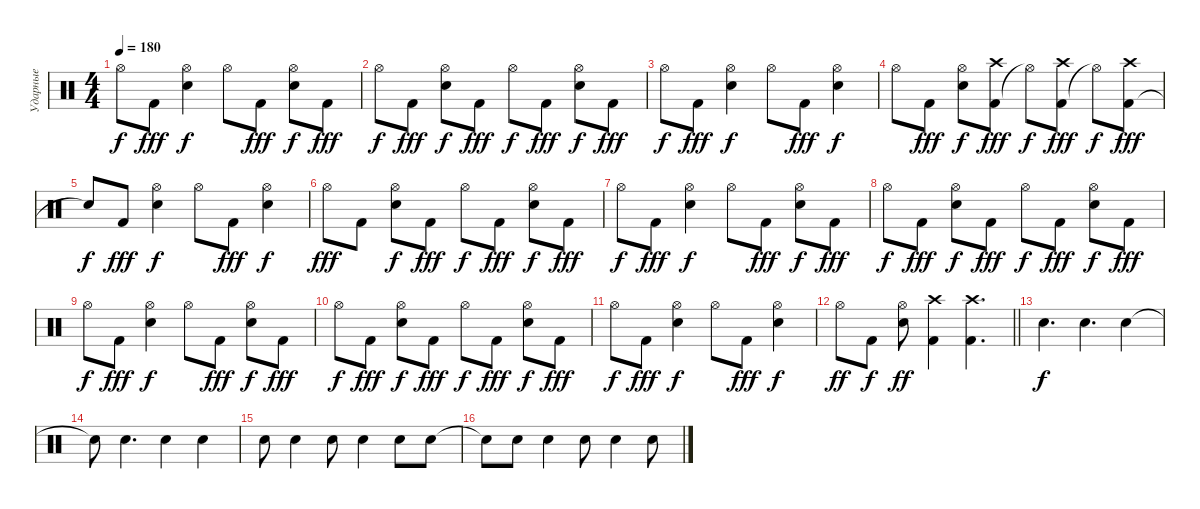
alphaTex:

\track ("Ударные" "Ударные") {instrument percussion}
\staff
\articulation defaults
\ts (4 4)
\tempo 180
\clef neutral
\ks c "Hi-Hat (open)".8{dy f} "Kick (hit) 2".8{dy fff}
("Snare (hit) 2" "Hi-Hat (open)").4{dy f} "Hi-Hat (open)".8 "Kick (hit) 2".8{dy fff} ("Snare (hit) 2" "Hi-Hat (open)").8{dy f} "Kick (hit) 2".8{dy fff} |
"Hi-Hat (open)".8{dy f} "Kick (hit) 2".8{dy fff} ("Snare (hit) 2" "Hi-Hat (open)").8{dy f} "Kick (hit) 2".8{dy fff} "Hi-Hat (open)".8{dy f} "Kick (hit) 2".8{dy fff} ("Snare (hit) 2" "Hi-Hat (open)").8{dy f} "Kick (hit) 2".8{dy fff} |
"Hi-Hat (open)".8{dy f} "Kick (hit) 2".8{dy fff} ("Snare (hit) 2" "Hi-Hat (open)").4{dy f} "Hi-Hat (open)".8 "Kick (hit) 2".8{dy fff} ("Snare (hit) 2" "Hi-Hat (open)").4{dy f} |
"Hi-Hat (open)".8 "Kick (hit) 2".8{dy fff} ("Snare (hit) 2" "Hi-Hat (open)").8{dy f} ("Kick (hit) 2" "Crash high (hit)").8{dy fff} "Hi-Hat (open)"{t}.8{dy f} ("Kick (hit) 2" "Crash high (hit)").8{dy fff} "Hi-Hat (open)"{t}.8{dy f} ("Kick (hit) 2" "Crash high (hit)").8{dy fff} |
"Snare (hit)"{t}.8{dy f} "Kick (hit) 2".8{dy fff} ("Snare (hit) 2" "Hi-Hat (open)").4{dy f} "Hi-Hat (open)".8 "Kick (hit) 2".8{dy fff} ("Snare (hit) 2" "Hi-Hat (open)").4{dy f} |
"Hi-Hat (open)".8{dy fff} "Kick (hit) 2".8 ("Snare (hit) 2" "Hi-Hat (open)").8{dy f} "Kick (hit) 2".8{dy fff} "Hi-Hat (open)".8{dy f} "Kick (hit) 2".8{dy fff} ("Snare (hit) 2" "Hi-Hat (open)").8{dy f} "Kick (hit) 2".8{dy fff} |
"Hi-Hat (open)".8{dy f} "Kick (hit) 2".8{dy fff} ("Snare (hit) 2" "Hi-Hat (open)").4{dy f} "Hi-Hat (open)".8 "Kick (hit) 2".8{dy fff} ("Snare (hit) 2" "Hi-Hat (open)").8{dy f} "Kick (hit) 2".8{dy fff} |
"Hi-Hat (open)".8{dy f} "Kick (hit) 2".8{dy fff} ("Snare (hit) 2" "Hi-Hat (open)").8{dy f} "Kick (hit) 2".8{dy fff} "Hi-Hat (open)".8{dy f} "Kick (hit) 2".8{dy fff} ("Snare (hit) 2" "Hi-Hat (open)").8{dy f} "Kick (hit) 2".8{dy fff} |
"Hi-Hat (open)".8{dy f} "Kick (hit) 2".8{dy fff} ("Snare (hit) 2" "Hi-Hat (open)").4{dy f} "Hi-Hat (open)".8 "Kick (hit) 2".8{dy fff} ("Snare (hit) 2" "Hi-Hat (open)").8{dy f} "Kick (hit) 2".8{dy fff} |
"Hi-Hat (open)".8{dy f} "Kick (hit) 2".8{dy fff} ("Snare (hit) 2" "Hi-Hat (open)").8{dy f} "Kick (hit) 2".8{dy fff} "Hi-Hat (open)".8{dy f} "Kick (hit) 2".8{dy fff} ("Snare (hit) 2" "Hi-Hat (open)").8{dy f} "Kick (hit) 2".8{dy fff} |
"Hi-Hat (open)".8{dy f} "Kick (hit) 2".8{dy fff} ("Snare (hit) 2" "Hi-Hat (open)").4{dy f} "Hi-Hat (open)".8 "Kick (hit) 2".8{dy fff} ("Snare (hit) 2" "Hi-Hat (open)").4{dy f} |
\barLineRight lightlight "Hi-Hat (open)".8{dy ff} "Kick (hit) 2".8{dy f}
("Snare (hit) 2" "Hi-Hat (open)").8{dy ff} ("Kick (hit) 2" "Crash high (hit)").4 ("Kick (hit) 2" "Crash high (hit)").4{d} |
"Snare (hit) 2".4{d dy f} "Snare (hit) 2".4{d} "Snare (hit) 2".4 |
"Snare (hit)"{t}.8 "Snare (hit) 2".4{d} "Snare (hit) 2".4 "Snare (hit) 2".4 |
"Snare (hit) 2".8 "Snare (hit) 2".4 "Snare (hit) 2".8 "Snare (hit) 2".4 "Snare (hit) 2".8 "Snare (hit) 2".8 |
"Snare (hit)"{t}.8 "Snare (hit) 2".8 "Snare (hit) 2".4 "Snare (hit) 2".8 "Snare (hit) 2".4 "Snare (hit) 2".8
